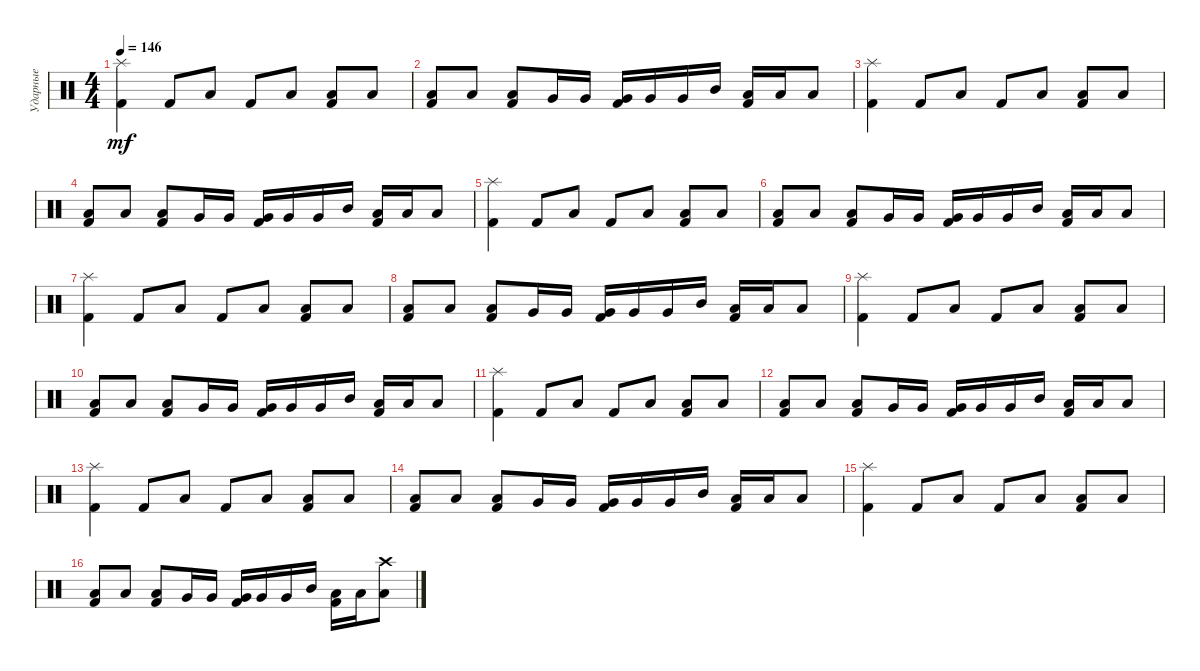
\track ("Ударные" "Ударные") {instrument percussion}
\staff {score}
\articulation defaults
\ts (4 4)
\tempo 146
\clef neutral
\ks c
("Splash (hit)" "Kick (hit) 2").4{dy mf} "Kick (hit) 2".8 "Low Tom (hit)".8 "Kick (hit) 2".8 "Low Tom (hit)".8 ("Low Tom (hit)" "Kick (hit) 2").8 "Low Tom (hit)".8 |
("Low Tom (hit)" "Kick (hit) 2").8 "Low Tom (hit)".8 ("Low Tom (hit)" "Kick (hit) 2").8 "Very Low Tom (hit)".16 "Very Low Tom (hit)".16 ("Very Low Tom (hit)" "Kick (hit) 2").16 "Very Low Tom (hit)".16 "Very Low Tom (hit)".16 "Mid Tom (hit)".16 ("Low Tom (hit)" "Kick (hit) 2").16 "Low Tom (hit)".16 "Low Tom (hit)".8 |
("Splash (hit)" "Kick (hit) 2").4 "Kick (hit) 2".8 "Low Tom (hit)".8 "Kick (hit) 2".8 "Low Tom (hit)".8 ("Low Tom (hit)" "Kick (hit) 2").8 "Low Tom (hit)".8 |
("Low Tom (hit)" "Kick (hit) 2").8 "Low Tom (hit)".8 ("Low Tom (hit)" "Kick (hit) 2").8 "Very Low Tom (hit)".16 "Very Low Tom (hit)".16 ("Very Low Tom (hit)" "Kick (hit) 2").16 "Very Low Tom (hit)".16 "Very Low Tom (hit)".16 "Mid Tom (hit)".16 ("Low Tom (hit)" "Kick (hit) 2").16 "Low Tom (hit)".16 "Low Tom (hit)".8 |
("Splash (hit)" "Kick (hit) 2").4 "Kick (hit) 2".8 "Low Tom (hit)".8 "Kick (hit) 2".8 "Low Tom (hit)".8 ("Low Tom (hit)" "Kick (hit) 2").8 "Low Tom (hit)".8 |
("Low Tom (hit)" "Kick (hit) 2").8 "Low Tom (hit)".8 ("Low Tom (hit)" "Kick (hit) 2").8 "Very Low Tom (hit)".16 "Very Low Tom (hit)".16 ("Very Low Tom (hit)" "Kick (hit) 2").16 "Very Low Tom (hit)".16 "Very Low Tom (hit)".16 "Mid Tom (hit)".16 ("Low Tom (hit)" "Kick (hit) 2").16 "Low Tom (hit)".16 "Low Tom (hit)".8 |
("Splash (hit)" "Kick (hit) 2").4 "Kick (hit) 2".8 "Low Tom (hit)".8 "Kick (hit) 2".8 "Low Tom (hit)".8 ("Low Tom (hit)" "Kick (hit) 2").8 "Low Tom (hit)".8 |
("Low Tom (hit)" "Kick (hit) 2").8 "Low Tom (hit)".8 ("Low Tom (hit)" "Kick (hit) 2").8 "Very Low Tom (hit)".16 "Very Low Tom (hit)".16 ("Very Low Tom (hit)" "Kick (hit) 2").16 "Very Low Tom (hit)".16 "Very Low Tom (hit)".16 "Mid Tom (hit)".16 ("Low Tom (hit)" "Kick (hit) 2").16 "Low Tom (hit)".16 "Low Tom (hit)".8 |
("Splash (hit)" "Kick (hit) 2").4 "Kick (hit) 2".8 "Low Tom (hit)".8 "Kick (hit) 2".8 "Low Tom (hit)".8 ("Low Tom (hit)" "Kick (hit) 2").8 "Low Tom (hit)".8 |
("Low Tom (hit)" "Kick (hit) 2").8 "Low Tom (hit)".8 ("Low Tom (hit)" "Kick (hit) 2").8 "Very Low Tom (hit)".16 "Very Low Tom (hit)".16 ("Very Low Tom (hit)" "Kick (hit) 2").16 "Very Low Tom (hit)".16 "Very Low Tom (hit)".16 "Mid Tom (hit)".16 ("Low Tom (hit)" "Kick (hit) 2").16 "Low Tom (hit)".16 "Low Tom (hit)".8 |
("Splash (hit)" "Kick (hit) 2").4 "Kick (hit) 2".8 "Low Tom (hit)".8 "Kick (hit) 2".8 "Low Tom (hit)".8 ("Low Tom (hit)" "Kick (hit) 2").8 "Low Tom (hit)".8 |
("Low Tom (hit)" "Kick (hit) 2").8 "Low Tom (hit)".8 ("Low Tom (hit)" "Kick (hit) 2").8 "Very Low Tom (hit)".16 "Very Low Tom (hit)".16 ("Very Low Tom (hit)" "Kick (hit) 2").16 "Very Low Tom (hit)".16 "Very Low Tom (hit)".16 "Mid Tom (hit)".16 ("Low Tom (hit)" "Kick (hit) 2").16 "Low Tom (hit)".16 "Low Tom (hit)".8 |
("Splash (hit)" "Kick (hit) 2").4 "Kick (hit) 2".8 "Low Tom (hit)".8 "Kick (hit) 2".8 "Low Tom (hit)".8 ("Low Tom (hit)" "Kick (hit) 2").8 "Low Tom (hit)".8 |
("Low Tom (hit)" "Kick (hit) 2").8 "Low Tom (hit)".8 ("Low Tom (hit)" "Kick (hit) 2").8 "Very Low Tom (hit)".16 "Very Low Tom (hit)".16 ("Very Low Tom (hit)" "Kick (hit) 2").16 "Very Low Tom (hit)".16 "Very Low Tom (hit)".16 "Mid Tom (hit)".16 ("Low Tom (hit)" "Kick (hit) 2").16 "Low Tom (hit)".16 "Low Tom (hit)".8 |
("Splash (hit)" "Kick (hit) 2").4 "Kick (hit) 2".8 "Low Tom (hit)".8 "Kick (hit) 2".8 "Low Tom (hit)".8 ("Low Tom (hit)" "Kick (hit) 2").8 "Low Tom (hit)".8 |
("Low Tom (hit)" "Kick (hit) 2").8 "Low Tom (hit)".8 ("Low Tom (hit)" "Kick (hit) 2").8 "Very Low Tom (hit)".16 "Very Low Tom (hit)".16 ("Very Low Tom (hit)" "Kick (hit) 2").16 "Very Low Tom (hit)".16 "Very Low Tom (hit)".16 "Mid Tom (hit)".16 ("Low Tom (hit)" "Kick (hit) 2").16 "Low Tom (hit)".16 ("Crash high (hit)" "Low Tom (hit)").8
